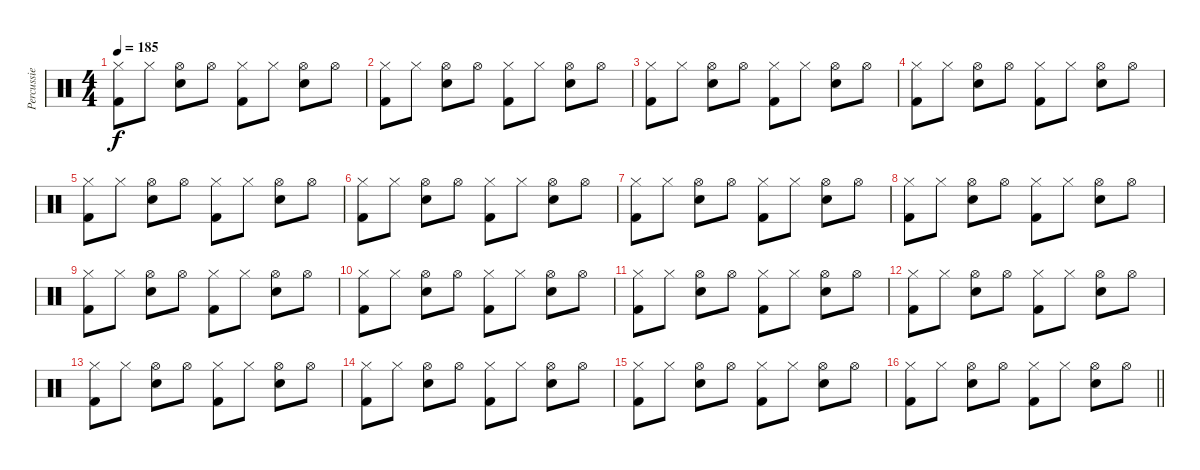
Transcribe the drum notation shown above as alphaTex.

\track ("Percussie" "Percussie") {instrument percussion}
\staff {score}
\articulation defaults
\ts (4 4)
\tempo 185
\clef neutral
\ks c
("Hi-Hat (closed)" "Kick (hit) 2").8{dy f} "Hi-Hat (closed)".8 ("Hi-Hat (open)" "Snare (hit) 2").8 "Hi-Hat (open)".8 ("Hi-Hat (closed)" "Kick (hit) 2").8 "Hi-Hat (closed)".8 ("Hi-Hat (open)" "Snare (hit) 2").8 "Hi-Hat (open)".8 |
("Hi-Hat (closed)" "Kick (hit) 2").8 "Hi-Hat (closed)".8 ("Hi-Hat (open)" "Snare (hit) 2").8 "Hi-Hat (open)".8 ("Hi-Hat (closed)" "Kick (hit) 2").8 "Hi-Hat (closed)".8 ("Hi-Hat (open)" "Snare (hit) 2").8 "Hi-Hat (open)".8 |
("Hi-Hat (closed)" "Kick (hit) 2").8 "Hi-Hat (closed)".8 ("Hi-Hat (open)" "Snare (hit) 2").8 "Hi-Hat (open)".8 ("Hi-Hat (closed)" "Kick (hit) 2").8 "Hi-Hat (closed)".8 ("Hi-Hat (open)" "Snare (hit) 2").8 "Hi-Hat (open)".8 |
("Hi-Hat (closed)" "Kick (hit) 2").8 "Hi-Hat (closed)".8 ("Hi-Hat (open)" "Snare (hit) 2").8 "Hi-Hat (open)".8 ("Hi-Hat (closed)" "Kick (hit) 2").8 "Hi-Hat (closed)".8 ("Hi-Hat (open)" "Snare (hit) 2").8 "Hi-Hat (open)".8 |
("Hi-Hat (closed)" "Kick (hit) 2").8 "Hi-Hat (closed)".8 ("Hi-Hat (open)" "Snare (hit) 2").8 "Hi-Hat (open)".8 ("Hi-Hat (closed)" "Kick (hit) 2").8 "Hi-Hat (closed)".8 ("Hi-Hat (open)" "Snare (hit) 2").8 "Hi-Hat (open)".8 |
("Hi-Hat (closed)" "Kick (hit) 2").8 "Hi-Hat (closed)".8 ("Hi-Hat (open)" "Snare (hit) 2").8 "Hi-Hat (open)".8 ("Hi-Hat (closed)" "Kick (hit) 2").8 "Hi-Hat (closed)".8 ("Hi-Hat (open)" "Snare (hit) 2").8 "Hi-Hat (open)".8 |
("Hi-Hat (closed)" "Kick (hit) 2").8 "Hi-Hat (closed)".8 ("Hi-Hat (open)" "Snare (hit) 2").8 "Hi-Hat (open)".8 ("Hi-Hat (closed)" "Kick (hit) 2").8 "Hi-Hat (closed)".8 ("Hi-Hat (open)" "Snare (hit) 2").8 "Hi-Hat (open)".8 |
("Hi-Hat (closed)" "Kick (hit) 2").8 "Hi-Hat (closed)".8 ("Hi-Hat (open)" "Snare (hit) 2").8 "Hi-Hat (open)".8 ("Hi-Hat (closed)" "Kick (hit) 2").8 "Hi-Hat (closed)".8 ("Hi-Hat (open)" "Snare (hit) 2").8 "Hi-Hat (open)".8 |
("Hi-Hat (closed)" "Kick (hit) 2").8 "Hi-Hat (closed)".8 ("Hi-Hat (open)" "Snare (hit) 2").8 "Hi-Hat (open)".8 ("Hi-Hat (closed)" "Kick (hit) 2").8 "Hi-Hat (closed)".8 ("Hi-Hat (open)" "Snare (hit) 2").8 "Hi-Hat (open)".8 |
("Hi-Hat (closed)" "Kick (hit) 2").8 "Hi-Hat (closed)".8 ("Hi-Hat (open)" "Snare (hit) 2").8 "Hi-Hat (open)".8 ("Hi-Hat (closed)" "Kick (hit) 2").8 "Hi-Hat (closed)".8 ("Hi-Hat (open)" "Snare (hit) 2").8 "Hi-Hat (open)".8 |
("Hi-Hat (closed)" "Kick (hit) 2").8 "Hi-Hat (closed)".8 ("Hi-Hat (open)" "Snare (hit) 2").8 "Hi-Hat (open)".8 ("Hi-Hat (closed)" "Kick (hit) 2").8 "Hi-Hat (closed)".8 ("Hi-Hat (open)" "Snare (hit) 2").8 "Hi-Hat (open)".8 |
("Hi-Hat (closed)" "Kick (hit) 2").8 "Hi-Hat (closed)".8 ("Hi-Hat (open)" "Snare (hit) 2").8 "Hi-Hat (open)".8 ("Hi-Hat (closed)" "Kick (hit) 2").8 "Hi-Hat (closed)".8 ("Hi-Hat (open)" "Snare (hit) 2").8 "Hi-Hat (open)".8 |
("Hi-Hat (closed)" "Kick (hit) 2").8 "Hi-Hat (closed)".8 ("Hi-Hat (open)" "Snare (hit) 2").8 "Hi-Hat (open)".8 ("Hi-Hat (closed)" "Kick (hit) 2").8 "Hi-Hat (closed)".8 ("Hi-Hat (open)" "Snare (hit) 2").8 "Hi-Hat (open)".8 |
("Hi-Hat (closed)" "Kick (hit) 2").8 "Hi-Hat (closed)".8 ("Hi-Hat (open)" "Snare (hit) 2").8 "Hi-Hat (open)".8 ("Hi-Hat (closed)" "Kick (hit) 2").8 "Hi-Hat (closed)".8 ("Hi-Hat (open)" "Snare (hit) 2").8 "Hi-Hat (open)".8 |
("Hi-Hat (closed)" "Kick (hit) 2").8 "Hi-Hat (closed)".8 ("Hi-Hat (open)" "Snare (hit) 2").8 "Hi-Hat (open)".8 ("Hi-Hat (closed)" "Kick (hit) 2").8 "Hi-Hat (closed)".8 ("Hi-Hat (open)" "Snare (hit) 2").8 "Hi-Hat (open)".8 |
\barLineRight lightlight
("Hi-Hat (closed)" "Kick (hit) 2").8 "Hi-Hat (closed)".8 ("Hi-Hat (open)" "Snare (hit) 2").8 "Hi-Hat (open)".8 ("Hi-Hat (closed)" "Kick (hit) 2").8 "Hi-Hat (closed)".8 ("Hi-Hat (open)" "Snare (hit) 2").8 "Hi-Hat (open)".8
